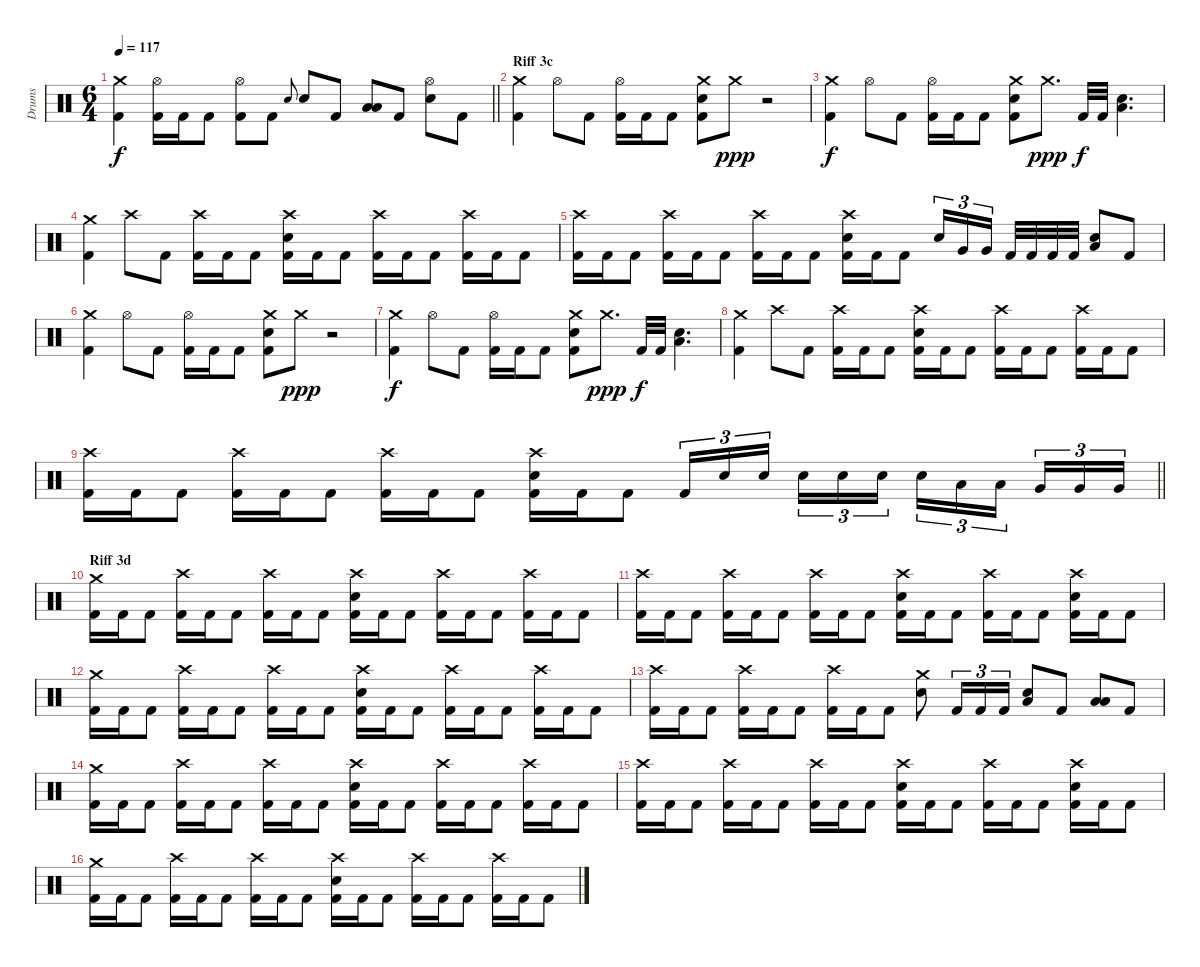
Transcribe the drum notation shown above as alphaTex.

\track ("Drums" "Drums") {instrument percussion}
\staff {score}
\articulation defaults
\ts (6 4)
\tempo 117
\clef neutral
\barLineRight lightlight
\ks c
("Crash medium (hit)" "Kick (hit) 2").4{dy f} ("Hi-Hat (open)" "Kick (hit) 2").16 "Kick (hit) 2".16 "Kick (hit) 2".8 ("Kick (hit) 2" "Hi-Hat (open)").8 "Kick (hit) 2".8 "Electric Snare (hit)".8{gr onbeat} "Electric Snare (hit)".8 "Kick (hit) 2".8 ("Low Tom (hit)" "Low Floor Tom (hit)").8 "Kick (hit) 2".8 ("Electric Snare (hit)" "Hi-Hat (open)").8 "Kick (hit) 2".8 |
\section ("" "Riff 3c")
("Kick (hit) 2" "Crash medium (hit)").4 "Hi-Hat (open)".8 "Kick (hit) 2".8 ("Hi-Hat (open)" "Kick (hit) 2").16 "Kick (hit) 2".16 "Kick (hit) 2".8 ("Electric Snare (hit)" "Kick (hit) 2" "Crash medium (hit)").8 "Crash medium (hit)".8{dy ppp} r.2 |
("Kick (hit) 2" "Crash medium (hit)").4{dy f} "Hi-Hat (open)".8 "Kick (hit) 2".8 ("Hi-Hat (open)" "Kick (hit) 2").16 "Kick (hit) 2".16 "Kick (hit) 2".8 ("Electric Snare (hit)" "Kick (hit) 2" "Crash medium (hit)").8 "Crash medium (hit)".8{d dy ppp} "Kick (hit) 2".32{dy f} "Kick (hit) 2".32 ("Electric Snare (hit)" "Low Floor Tom (hit)").4{d} |
("Crash medium (hit)" "Kick (hit) 2").4 "Crash high (hit)".8 "Kick (hit) 2".8 ("Crash high (hit)" "Kick (hit) 2").16 "Kick (hit) 2".16 "Kick (hit) 2".8 ("Electric Snare (hit)" "Kick (hit) 2" "Crash high (hit)").16 "Kick (hit) 2".16 "Kick (hit) 2".8 ("Crash high (hit)" "Kick (hit) 2").16 "Kick (hit) 2".16 "Kick (hit) 2".8 ("Crash high (hit)" "Kick (hit) 2").16 "Kick (hit) 2".16 "Kick (hit) 2".8 |
("Crash high (hit)" "Kick (hit) 2").16 "Kick (hit) 2".16 "Kick (hit) 2".8 ("Crash high (hit)" "Kick (hit) 2").16 "Kick (hit) 2".16 "Kick (hit) 2".8 ("Crash high (hit)" "Kick (hit) 2").16 "Kick (hit) 2".16 "Kick (hit) 2".8 ("Electric Snare (hit)" "Kick (hit) 2" "Crash high (hit)").16 "Kick (hit) 2".16 "Kick (hit) 2".8 "Electric Snare (hit)".16{tu (3 2)} "Very Low Tom (hit)".16{tu (3 2)} "Very Low Tom (hit)".16{tu (3 2) beam splitsecondary} "Kick (hit) 2".32 "Kick (hit) 2".32 "Kick (hit) 2".32 "Kick (hit) 2".32 ("Electric Snare (hit)" "Low Floor Tom (hit)").8 "Kick (hit) 2".8 |
("Kick (hit) 2" "Crash medium (hit)").4 "Hi-Hat (open)".8 "Kick (hit) 2".8 ("Hi-Hat (open)" "Kick (hit) 2").16 "Kick (hit) 2".16 "Kick (hit) 2".8 ("Electric Snare (hit)" "Kick (hit) 2" "Crash medium (hit)").8 "Crash medium (hit)".8{dy ppp} r.2 |
("Kick (hit) 2" "Crash medium (hit)").4{dy f} "Hi-Hat (open)".8 "Kick (hit) 2".8 ("Hi-Hat (open)" "Kick (hit) 2").16 "Kick (hit) 2".16 "Kick (hit) 2".8 ("Electric Snare (hit)" "Kick (hit) 2" "Crash medium (hit)").8 "Crash medium (hit)".8{d dy ppp} "Kick (hit) 2".32{dy f} "Kick (hit) 2".32 ("Electric Snare (hit)" "Low Floor Tom (hit)").4{d} |
("Crash medium (hit)" "Kick (hit) 2").4 "Crash high (hit)".8 "Kick (hit) 2".8 ("Crash high (hit)" "Kick (hit) 2").16 "Kick (hit) 2".16 "Kick (hit) 2".8 ("Electric Snare (hit)" "Kick (hit) 2" "Crash high (hit)").16 "Kick (hit) 2".16 "Kick (hit) 2".8 ("Crash high (hit)" "Kick (hit) 2").16 "Kick (hit) 2".16 "Kick (hit) 2".8 ("Crash high (hit)" "Kick (hit) 2").16 "Kick (hit) 2".16 "Kick (hit) 2".8 |
\barLineRight lightlight
("Crash high (hit)" "Kick (hit) 2").16 "Kick (hit) 2".16 "Kick (hit) 2".8 ("Crash high (hit)" "Kick (hit) 2").16 "Kick (hit) 2".16 "Kick (hit) 2".8 ("Crash high (hit)" "Kick (hit) 2").16 "Kick (hit) 2".16 "Kick (hit) 2".8 ("Electric Snare (hit)" "Kick (hit) 2" "Crash high (hit)").16 "Kick (hit) 2".16 "Kick (hit) 2".8 "Kick (hit) 2".16{tu (3 2)} "Electric Snare (hit)".16{tu (3 2)} "Electric Snare (hit)".16{tu (3 2) beam splitsecondary} "Electric Snare (hit)".16{tu (3 2)} "Electric Snare (hit)".16{tu (3 2)} "Electric Snare (hit)".16{tu (3 2) beam splitsecondary} "Electric Snare (hit)".16{tu (3 2)} "Low Tom (hit)".16{tu (3 2)} "Low Tom (hit)".16{tu (3 2) beam splitsecondary} "Very Low Tom (hit)".16{tu (3 2)} "Very Low Tom (hit)".16{tu (3 2)} "Very Low Tom (hit)".16{tu (3 2)} |
\section ("" "Riff 3d")
("Crash medium (hit)" "Kick (hit) 2").16 "Kick (hit) 2".16 "Kick (hit) 2".8 ("Crash high (hit)" "Kick (hit) 2").16 "Kick (hit) 2".16 "Kick (hit) 2".8 ("Crash high (hit)" "Kick (hit) 2").16 "Kick (hit) 2".16 "Kick (hit) 2".8 ("Electric Snare (hit)" "Kick (hit) 2" "Crash high (hit)").16 "Kick (hit) 2".16 "Kick (hit) 2".8 ("Crash high (hit)" "Kick (hit) 2").16 "Kick (hit) 2".16 "Kick (hit) 2".8 ("Crash high (hit)" "Kick (hit) 2").16 "Kick (hit) 2".16 "Kick (hit) 2".8 |
("Crash high (hit)" "Kick (hit) 2").16 "Kick (hit) 2".16 "Kick (hit) 2".8 ("Crash high (hit)" "Kick (hit) 2").16 "Kick (hit) 2".16 "Kick (hit) 2".8 ("Crash high (hit)" "Kick (hit) 2").16 "Kick (hit) 2".16 "Kick (hit) 2".8 ("Electric Snare (hit)" "Kick (hit) 2" "Crash high (hit)").16 "Kick (hit) 2".16 "Kick (hit) 2".8 ("Crash high (hit)" "Kick (hit) 2").16 "Kick (hit) 2".16 "Kick (hit) 2".8 ("Crash high (hit)" "Kick (hit) 2" "Electric Snare (hit)").16 "Kick (hit) 2".16 "Kick (hit) 2".8 |
("Crash medium (hit)" "Kick (hit) 2").16 "Kick (hit) 2".16 "Kick (hit) 2".8 ("Crash high (hit)" "Kick (hit) 2").16 "Kick (hit) 2".16 "Kick (hit) 2".8 ("Crash high (hit)" "Kick (hit) 2").16 "Kick (hit) 2".16 "Kick (hit) 2".8 ("Electric Snare (hit)" "Kick (hit) 2" "Crash high (hit)").16 "Kick (hit) 2".16 "Kick (hit) 2".8 ("Crash high (hit)" "Kick (hit) 2").16 "Kick (hit) 2".16 "Kick (hit) 2".8 ("Crash high (hit)" "Kick (hit) 2").16 "Kick (hit) 2".16 "Kick (hit) 2".8 |
("Crash high (hit)" "Kick (hit) 2").16 "Kick (hit) 2".16 "Kick (hit) 2".8 ("Crash high (hit)" "Kick (hit) 2").16 "Kick (hit) 2".16 "Kick (hit) 2".8 ("Crash high (hit)" "Kick (hit) 2").16 "Kick (hit) 2".16 "Kick (hit) 2".8 ("Electric Snare (hit)" "Crash medium (hit)").8 "Kick (hit) 2".16{tu (3 2)} "Kick (hit) 2".16{tu (3 2)} "Kick (hit) 2".16{tu (3 2)} ("Electric Snare (hit)" "Low Floor Tom (hit)").8 "Kick (hit) 2".8 ("Low Tom (hit)" "Low Floor Tom (hit)").8 "Kick (hit) 2".8 |
("Crash medium (hit)" "Kick (hit) 2").16 "Kick (hit) 2".16 "Kick (hit) 2".8 ("Crash high (hit)" "Kick (hit) 2").16 "Kick (hit) 2".16 "Kick (hit) 2".8 ("Crash high (hit)" "Kick (hit) 2").16 "Kick (hit) 2".16 "Kick (hit) 2".8 ("Electric Snare (hit)" "Kick (hit) 2" "Crash high (hit)").16 "Kick (hit) 2".16 "Kick (hit) 2".8 ("Crash high (hit)" "Kick (hit) 2").16 "Kick (hit) 2".16 "Kick (hit) 2".8 ("Crash high (hit)" "Kick (hit) 2").16 "Kick (hit) 2".16 "Kick (hit) 2".8 |
("Crash high (hit)" "Kick (hit) 2").16 "Kick (hit) 2".16 "Kick (hit) 2".8 ("Crash high (hit)" "Kick (hit) 2").16 "Kick (hit) 2".16 "Kick (hit) 2".8 ("Crash high (hit)" "Kick (hit) 2").16 "Kick (hit) 2".16 "Kick (hit) 2".8 ("Electric Snare (hit)" "Kick (hit) 2" "Crash high (hit)").16 "Kick (hit) 2".16 "Kick (hit) 2".8 ("Crash high (hit)" "Kick (hit) 2").16 "Kick (hit) 2".16 "Kick (hit) 2".8 ("Crash high (hit)" "Kick (hit) 2" "Electric Snare (hit)").16 "Kick (hit) 2".16 "Kick (hit) 2".8 |
("Crash medium (hit)" "Kick (hit) 2").16 "Kick (hit) 2".16 "Kick (hit) 2".8 ("Crash high (hit)" "Kick (hit) 2").16 "Kick (hit) 2".16 "Kick (hit) 2".8 ("Crash high (hit)" "Kick (hit) 2").16 "Kick (hit) 2".16 "Kick (hit) 2".8 ("Electric Snare (hit)" "Kick (hit) 2" "Crash high (hit)").16 "Kick (hit) 2".16 "Kick (hit) 2".8 ("Crash high (hit)" "Kick (hit) 2").16 "Kick (hit) 2".16 "Kick (hit) 2".8 ("Crash high (hit)" "Kick (hit) 2").16 "Kick (hit) 2".16 "Kick (hit) 2".8
